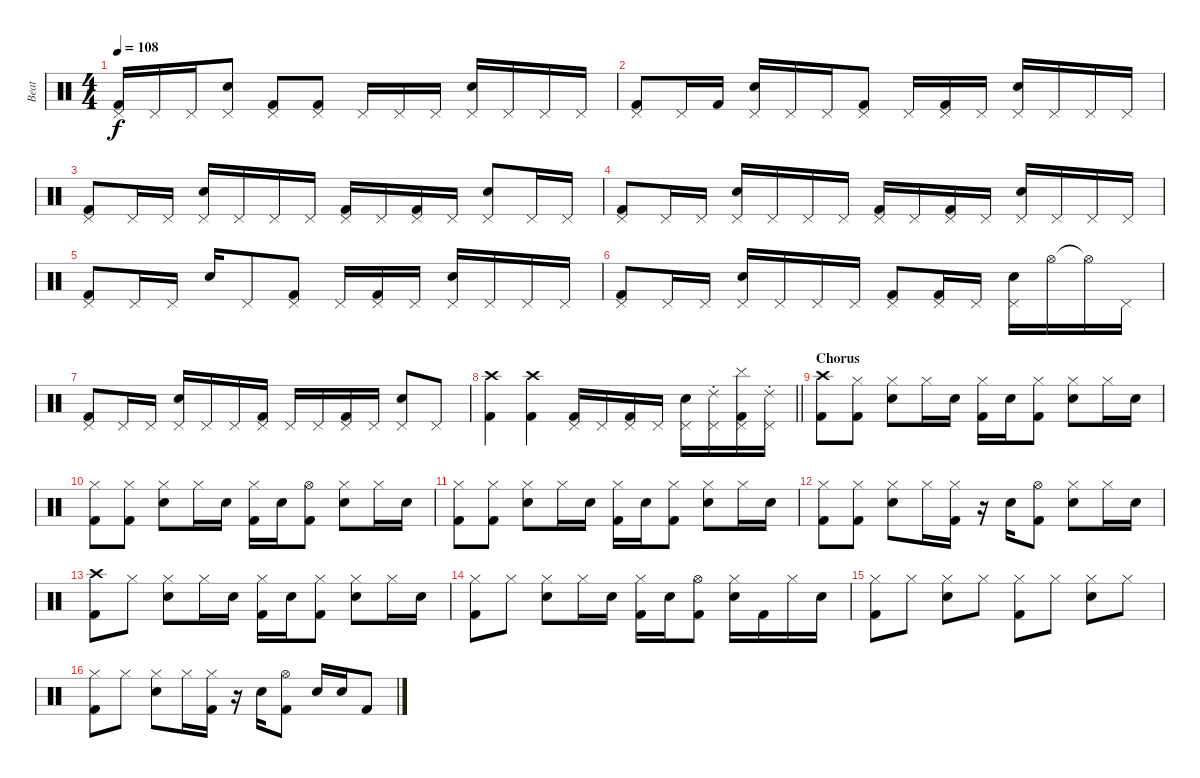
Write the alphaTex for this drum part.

\track ("Beat" "Beat") {instrument percussion}
\staff {score}
\articulation defaults
\ts (4 4)
\tempo 108
\clef neutral
\ks c
("Pedal Hi-Hat (hit)" "Kick (hit) 2").16{dy f} "Pedal Hi-Hat (hit)".16 "Pedal Hi-Hat (hit)".16 ("Pedal Hi-Hat (hit)" "Snare (hit) 2").8 ("Pedal Hi-Hat (hit)" "Kick (hit) 2").8 ("Pedal Hi-Hat (hit)" "Kick (hit) 2").8 "Pedal Hi-Hat (hit)".16 "Pedal Hi-Hat (hit)".16 "Pedal Hi-Hat (hit)".16 ("Pedal Hi-Hat (hit)" "Snare (hit) 2").16 "Pedal Hi-Hat (hit)".16 "Pedal Hi-Hat (hit)".16 "Pedal Hi-Hat (hit)".16 |
("Pedal Hi-Hat (hit)" "Kick (hit) 2").8 "Pedal Hi-Hat (hit)".16 "Kick (hit) 2".16 ("Pedal Hi-Hat (hit)" "Snare (hit) 2").16 "Pedal Hi-Hat (hit)".16 "Pedal Hi-Hat (hit)".16 ("Pedal Hi-Hat (hit)" "Kick (hit) 2").8 "Pedal Hi-Hat (hit)".16 ("Pedal Hi-Hat (hit)" "Kick (hit) 2").16 "Pedal Hi-Hat (hit)".16 ("Pedal Hi-Hat (hit)" "Snare (hit) 2").16 "Pedal Hi-Hat (hit)".16 "Pedal Hi-Hat (hit)".16 "Pedal Hi-Hat (hit)".16 |
("Pedal Hi-Hat (hit)" "Kick (hit) 2").8 "Pedal Hi-Hat (hit)".16 "Pedal Hi-Hat (hit)".16 ("Pedal Hi-Hat (hit)" "Snare (hit) 2").16 "Pedal Hi-Hat (hit)".16 "Pedal Hi-Hat (hit)".16 "Pedal Hi-Hat (hit)".16 ("Pedal Hi-Hat (hit)" "Kick (hit) 2").16 "Pedal Hi-Hat (hit)".16 ("Pedal Hi-Hat (hit)" "Kick (hit) 2").16 "Pedal Hi-Hat (hit)".16 ("Pedal Hi-Hat (hit)" "Snare (hit) 2").8 "Pedal Hi-Hat (hit)".16 "Pedal Hi-Hat (hit)".16 |
("Pedal Hi-Hat (hit)" "Kick (hit) 2").8 "Pedal Hi-Hat (hit)".16 "Pedal Hi-Hat (hit)".16 ("Pedal Hi-Hat (hit)" "Snare (hit) 2").16 "Pedal Hi-Hat (hit)".16 "Pedal Hi-Hat (hit)".16 "Pedal Hi-Hat (hit)".16 ("Pedal Hi-Hat (hit)" "Kick (hit) 2").16 "Pedal Hi-Hat (hit)".16 ("Pedal Hi-Hat (hit)" "Kick (hit) 2").16 "Pedal Hi-Hat (hit)".16 ("Pedal Hi-Hat (hit)" "Snare (hit) 2").16 "Pedal Hi-Hat (hit)".16 "Pedal Hi-Hat (hit)".16 "Pedal Hi-Hat (hit)".16 |
("Pedal Hi-Hat (hit)" "Kick (hit) 2").8 "Pedal Hi-Hat (hit)".16 "Pedal Hi-Hat (hit)".16 "Snare (hit) 2".16 "Pedal Hi-Hat (hit)".8 ("Pedal Hi-Hat (hit)" "Kick (hit) 2").8 "Pedal Hi-Hat (hit)".16 ("Pedal Hi-Hat (hit)" "Kick (hit) 2").16 "Pedal Hi-Hat (hit)".16 ("Pedal Hi-Hat (hit)" "Snare (hit) 2").16 "Pedal Hi-Hat (hit)".16 "Pedal Hi-Hat (hit)".16 "Pedal Hi-Hat (hit)".16 |
("Pedal Hi-Hat (hit)" "Kick (hit) 2").8 "Pedal Hi-Hat (hit)".16 "Pedal Hi-Hat (hit)".16 ("Pedal Hi-Hat (hit)" "Snare (hit) 2").16 "Pedal Hi-Hat (hit)".16 "Pedal Hi-Hat (hit)".16 "Pedal Hi-Hat (hit)".16 ("Pedal Hi-Hat (hit)" "Kick (hit) 2").8 ("Pedal Hi-Hat (hit)" "Kick (hit) 2").16 "Pedal Hi-Hat (hit)".16 ("Pedal Hi-Hat (hit)" "Snare (hit) 2").16 "Hi-Hat (open)".16 "Hi-Hat (open)"{t}.16 "Pedal Hi-Hat (hit)".16 |
("Pedal Hi-Hat (hit)" "Kick (hit) 2").8 "Pedal Hi-Hat (hit)".16 "Pedal Hi-Hat (hit)".16 ("Pedal Hi-Hat (hit)" "Snare (hit) 2").16 "Pedal Hi-Hat (hit)".16 "Pedal Hi-Hat (hit)".16 ("Pedal Hi-Hat (hit)" "Kick (hit) 2").16 "Pedal Hi-Hat (hit)".16 "Pedal Hi-Hat (hit)".16 ("Pedal Hi-Hat (hit)" "Kick (hit) 2").16 "Pedal Hi-Hat (hit)".16 ("Pedal Hi-Hat (hit)" "Snare (hit) 2").8 "Pedal Hi-Hat (hit)".8 |
\barLineRight lightlight
("Crash high (hit)" "Kick (hit) 2").4 ("Crash high (hit)" "Kick (hit) 2").4 ("Pedal Hi-Hat (hit)" "Kick (hit) 2").16 "Pedal Hi-Hat (hit)".16 ("Pedal Hi-Hat (hit)" "Kick (hit) 2").16 "Pedal Hi-Hat (hit)".16 ("Pedal Hi-Hat (hit)" "Snare (hit) 2").16 ("Pedal Hi-Hat (hit)" "Ride (choke) 2").16 ("Pedal Hi-Hat (hit)" "Cymbal (hit)" "Kick (hit) 2").16 ("Pedal Hi-Hat (hit)" "Ride (choke) 2").16 |
\section ("" "Chorus")
("Crash high (hit)" "Kick (hit) 2").8 ("Hi-Hat (closed)" "Kick (hit) 2").8 ("Hi-Hat (closed)" "Snare (hit) 2").8 "Hi-Hat (closed)".16 "Snare (hit) 2".16 ("Hi-Hat (closed)" "Kick (hit) 2").16 "Snare (hit) 2".16 ("Hi-Hat (closed)" "Kick (hit) 2").8 ("Hi-Hat (closed)" "Snare (hit) 2").8 "Hi-Hat (closed)".16 "Snare (hit) 2".16 |
("Hi-Hat (closed)" "Kick (hit) 2").8 ("Hi-Hat (closed)" "Kick (hit) 2").8 ("Hi-Hat (closed)" "Snare (hit) 2").8 "Hi-Hat (closed)".16 "Snare (hit) 2".16 ("Hi-Hat (closed)" "Kick (hit) 2").16 "Snare (hit) 2".16 ("Hi-Hat (open)" "Kick (hit) 2").8 ("Hi-Hat (closed)" "Snare (hit) 2").8 "Hi-Hat (closed)".16 "Snare (hit) 2".16 |
("Hi-Hat (closed)" "Kick (hit) 2").8 ("Hi-Hat (closed)" "Kick (hit) 2").8 ("Hi-Hat (closed)" "Snare (hit) 2").8 "Hi-Hat (closed)".16 "Snare (hit) 2".16 ("Hi-Hat (closed)" "Kick (hit) 2").16 "Snare (hit) 2".16 ("Hi-Hat (closed)" "Kick (hit) 2").8 ("Hi-Hat (closed)" "Snare (hit) 2").8 "Hi-Hat (closed)".16 "Snare (hit) 2".16 |
("Hi-Hat (closed)" "Kick (hit) 2").8 ("Hi-Hat (closed)" "Kick (hit) 2").8 ("Hi-Hat (closed)" "Snare (hit) 2").8 "Hi-Hat (closed)".16 ("Hi-Hat (closed)" "Kick (hit) 2").16 r.16 "Snare (hit) 2".16 ("Hi-Hat (open)" "Kick (hit) 2").8 ("Hi-Hat (closed)" "Snare (hit) 2").8 "Hi-Hat (closed)".16 "Snare (hit) 2".16 |
("Crash high (hit)" "Kick (hit) 2").8 "Hi-Hat (closed)".8 ("Hi-Hat (closed)" "Snare (hit) 2").8 "Hi-Hat (closed)".16 "Snare (hit) 2".16 ("Hi-Hat (closed)" "Kick (hit) 2").16 "Snare (hit) 2".16 ("Hi-Hat (closed)" "Kick (hit) 2").8 ("Hi-Hat (closed)" "Snare (hit) 2").8 "Hi-Hat (closed)".16 "Snare (hit) 2".16 |
("Hi-Hat (closed)" "Kick (hit) 2").8 "Hi-Hat (closed)".8 ("Hi-Hat (closed)" "Snare (hit) 2").8 "Hi-Hat (closed)".16 "Snare (hit) 2".16 ("Hi-Hat (closed)" "Kick (hit) 2").16 "Snare (hit) 2".16 ("Hi-Hat (open)" "Kick (hit) 2").8 ("Hi-Hat (closed)" "Snare (hit) 2").16 "Kick (hit) 2".16 "Hi-Hat (closed)".16 "Snare (hit) 2".16 |
("Hi-Hat (closed)" "Kick (hit) 2").8 "Hi-Hat (closed)".8 ("Hi-Hat (closed)" "Snare (hit) 2").8 "Hi-Hat (closed)".8 ("Hi-Hat (closed)" "Kick (hit) 2").8 "Hi-Hat (closed)".8 ("Hi-Hat (closed)" "Snare (hit) 2").8 "Hi-Hat (closed)".8 |
("Hi-Hat (closed)" "Kick (hit) 2").8 "Hi-Hat (closed)".8 ("Hi-Hat (closed)" "Snare (hit) 2").8 "Hi-Hat (closed)".16 ("Hi-Hat (closed)" "Kick (hit) 2").16 r.16 "Snare (hit) 2".16 ("Hi-Hat (open)" "Kick (hit) 2").8 "Snare (hit) 2".16 "Snare (hit) 2".16 "Kick (hit) 2".8
